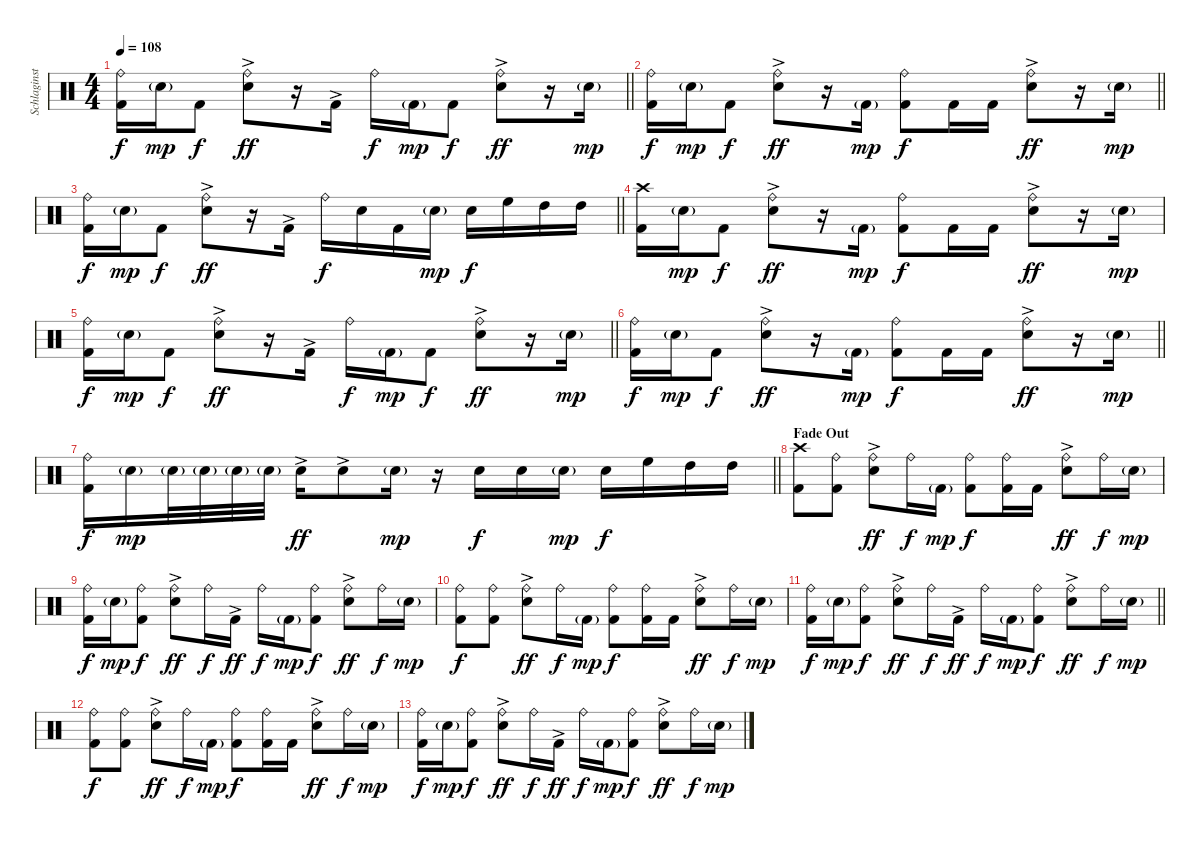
\track ("Schlaginstrumente - Auswahl" "Schlaginst") {instrument percussion}
\staff {score}
\articulation defaults
\ts (4 4)
\tempo 108
\clef neutral
\barLineRight lightlight
\ks c
("Ride (bell)" "Kick (hit) 2").16{dy f} "Snare (hit) 2"{g}.16{dy mp} "Kick (hit) 2".8{dy f} ("Ride (bell)" "Snare (hit) 2"{ac}).8{dy ff} r.16 "Kick (hit) 2"{ac}.16 "Ride (bell)".16{dy f} "Kick (hit) 2"{g}.16{dy mp} "Kick (hit) 2".8{dy f} ("Ride (bell)" "Snare (hit) 2"{ac}).8{dy ff} r.16 "Snare (hit) 2"{g}.16{dy mp} |
\barLineRight lightlight
("Ride (bell)" "Kick (hit) 2").16{dy f} "Snare (hit) 2"{g}.16{dy mp} "Kick (hit) 2".8{dy f} ("Ride (bell)" "Snare (hit) 2"{ac}).8{dy ff} r.16 "Kick (hit) 2"{g}.16{dy mp} ("Ride (bell)" "Kick (hit) 2").8{dy f} "Kick (hit) 2".16 "Kick (hit) 2".16 ("Ride (bell)" "Snare (hit) 2"{ac}).8{dy ff} r.16 "Snare (hit) 2"{g}.16{dy mp} |
\barLineRight lightlight
("Ride (bell)" "Kick (hit) 2").16{dy f} "Snare (hit) 2"{g}.16{dy mp} "Kick (hit) 2".8{dy f} ("Ride (bell)" "Snare (hit) 2"{ac}).8{dy ff} r.16 "Kick (hit) 2"{ac}.16 "Ride (bell)".16{dy f} "Snare (hit) 2".16 "Kick (hit) 2".16 "Snare (hit) 2"{g}.16{dy mp} "Snare (hit) 2".16{dy f} "High Floor Tom (hit)".16 "High Tom (hit)".16 "High Tom (hit)".16 |
("Crash high (hit)" "Kick (hit) 2").16 "Snare (hit) 2"{g}.16{dy mp} "Kick (hit) 2".8{dy f} ("Ride (bell)" "Snare (hit) 2"{ac}).8{dy ff} r.16 "Kick (hit) 2"{g}.16{dy mp} ("Ride (bell)" "Kick (hit) 2").8{dy f} "Kick (hit) 2".16 "Kick (hit) 2".16 ("Ride (bell)" "Snare (hit) 2"{ac}).8{dy ff} r.16 "Snare (hit) 2"{g}.16{dy mp} |
\barLineRight lightlight
("Ride (bell)" "Kick (hit) 2").16{dy f} "Snare (hit) 2"{g}.16{dy mp} "Kick (hit) 2".8{dy f} ("Ride (bell)" "Snare (hit) 2"{ac}).8{dy ff} r.16 "Kick (hit) 2"{ac}.16 "Ride (bell)".16{dy f} "Kick (hit) 2"{g}.16{dy mp} "Kick (hit) 2".8{dy f} ("Ride (bell)" "Snare (hit) 2"{ac}).8{dy ff} r.16 "Snare (hit) 2"{g}.16{dy mp} |
\barLineRight lightlight
("Ride (bell)" "Kick (hit) 2").16{dy f} "Snare (hit) 2"{g}.16{dy mp} "Kick (hit) 2".8{dy f} ("Ride (bell)" "Snare (hit) 2"{ac}).8{dy ff} r.16 "Kick (hit) 2"{g}.16{dy mp} ("Ride (bell)" "Kick (hit) 2").8{dy f} "Kick (hit) 2".16 "Kick (hit) 2".16 ("Ride (bell)" "Snare (hit) 2"{ac}).8{dy ff} r.16 "Snare (hit) 2"{g}.16{dy mp} |
\barLineRight lightlight
("Ride (bell)" "Kick (hit) 2").16{dy f} "Snare (hit) 2"{g}.16{dy mp} "Snare (hit) 2"{g}.32 "Snare (hit) 2"{g}.32 "Snare (hit) 2"{g}.32 "Snare (hit) 2"{g}.32 "Snare (hit) 2"{ac}.16{dy ff} "Snare (hit) 2"{ac}.8 "Snare (hit) 2"{g}.16{dy mp} r.16 "Snare (hit) 2".16{dy f} "Snare (hit) 2".16 "Snare (hit) 2"{g}.16{dy mp} "Snare (hit) 2".16{dy f} "High Floor Tom (hit)".16 "High Tom (hit)".16 "High Tom (hit)".16 |
\section ("" "Fade Out")
("Crash high (hit)" "Kick (hit) 2").8 ("Ride (bell)" "Kick (hit) 2").8 ("Ride (bell)" "Snare (hit) 2"{ac}).8{dy ff} "Ride (bell)".16{dy f} "Kick (hit) 2"{g}.16{dy mp} ("Ride (bell)" "Kick (hit) 2").8{dy f} ("Ride (bell)" "Kick (hit) 2").16 "Kick (hit) 2".16 ("Ride (bell)" "Snare (hit) 2"{ac}).8{dy ff} "Ride (bell)".16{dy f} "Snare (hit) 2"{g}.16{dy mp} |
("Ride (bell)" "Kick (hit) 2").16{dy f} "Snare (hit) 2"{g}.16{dy mp} ("Ride (bell)" "Kick (hit) 2").8{dy f} ("Ride (bell)" "Snare (hit) 2"{ac}).8{dy ff} "Ride (bell)".16{dy f} "Kick (hit) 2"{ac}.16{dy ff} "Ride (bell)".16{dy f} "Kick (hit) 2"{g}.16{dy mp} ("Ride (bell)" "Kick (hit) 2").8{dy f} ("Ride (bell)" "Snare (hit) 2"{ac}).8{dy ff} "Ride (bell)".16{dy f} "Snare (hit) 2"{g}.16{dy mp} |
("Ride (bell)" "Kick (hit) 2").8{dy f} ("Ride (bell)" "Kick (hit) 2").8 ("Ride (bell)" "Snare (hit) 2"{ac}).8{dy ff} "Ride (bell)".16{dy f} "Kick (hit) 2"{g}.16{dy mp} ("Ride (bell)" "Kick (hit) 2").8{dy f} ("Ride (bell)" "Kick (hit) 2").16 "Kick (hit) 2".16 ("Ride (bell)" "Snare (hit) 2"{ac}).8{dy ff} "Ride (bell)".16{dy f} "Snare (hit) 2"{g}.16{dy mp} |
\barLineRight lightlight
("Ride (bell)" "Kick (hit) 2").16{dy f} "Snare (hit) 2"{g}.16{dy mp} ("Ride (bell)" "Kick (hit) 2").8{dy f} ("Ride (bell)" "Snare (hit) 2"{ac}).8{dy ff} "Ride (bell)".16{dy f} "Kick (hit) 2"{ac}.16{dy ff} "Ride (bell)".16{dy f} "Kick (hit) 2"{g}.16{dy mp} ("Ride (bell)" "Kick (hit) 2").8{dy f} ("Ride (bell)" "Snare (hit) 2"{ac}).8{dy ff} "Ride (bell)".16{dy f} "Snare (hit) 2"{g}.16{dy mp} |
("Ride (bell)" "Kick (hit) 2").8{dy f} ("Ride (bell)" "Kick (hit) 2").8 ("Ride (bell)" "Snare (hit) 2"{ac}).8{dy ff} "Ride (bell)".16{dy f} "Kick (hit) 2"{g}.16{dy mp} ("Ride (bell)" "Kick (hit) 2").8{dy f} ("Ride (bell)" "Kick (hit) 2").16 "Kick (hit) 2".16 ("Ride (bell)" "Snare (hit) 2"{ac}).8{dy ff} "Ride (bell)".16{dy f} "Snare (hit) 2"{g}.16{dy mp} |
("Ride (bell)" "Kick (hit) 2").16{dy f} "Snare (hit) 2"{g}.16{dy mp} ("Ride (bell)" "Kick (hit) 2").8{dy f} ("Ride (bell)" "Snare (hit) 2"{ac}).8{dy ff} "Ride (bell)".16{dy f} "Kick (hit) 2"{ac}.16{dy ff} "Ride (bell)".16{dy f} "Kick (hit) 2"{g}.16{dy mp} ("Ride (bell)" "Kick (hit) 2").8{dy f} ("Ride (bell)" "Snare (hit) 2"{ac}).8{dy ff} "Ride (bell)".16{dy f} "Snare (hit) 2"{g}.16{dy mp}
